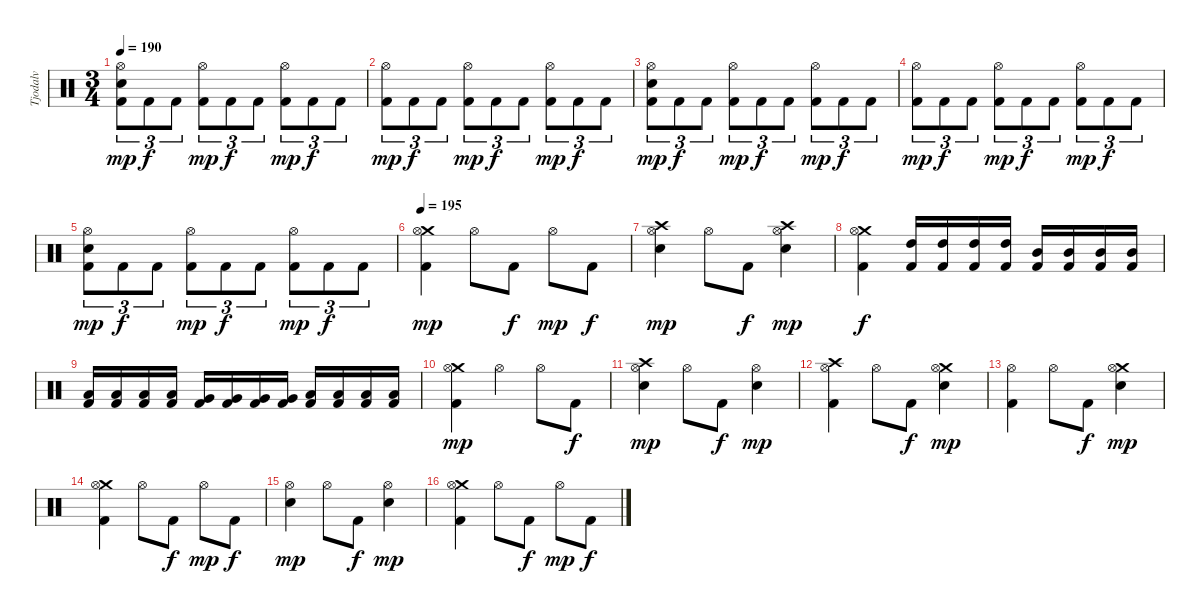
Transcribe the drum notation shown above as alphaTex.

\track ("Tjodalv" "Tjodalv") {instrument percussion}
\staff {score}
\articulation defaults
\ts (3 4)
\tempo 190
\clef neutral
\ks c
("Hi-Hat (open)" "Electric Snare (hit)" "Kick (hit) 2").8{tu (3 2) dy mp} "Kick (hit) 2".8{tu (3 2) dy f} "Kick (hit) 2".8{tu (3 2)} ("Hi-Hat (open)" "Kick (hit) 2").8{tu (3 2) dy mp} "Kick (hit) 2".8{tu (3 2) dy f} "Kick (hit) 2".8{tu (3 2)} ("Hi-Hat (open)" "Kick (hit) 2").8{tu (3 2) dy mp} "Kick (hit) 2".8{tu (3 2) dy f} "Kick (hit) 2".8{tu (3 2)} |
("Hi-Hat (open)" "Kick (hit) 2").8{tu (3 2) dy mp} "Kick (hit) 2".8{tu (3 2) dy f} "Kick (hit) 2".8{tu (3 2)} ("Hi-Hat (open)" "Kick (hit) 2").8{tu (3 2) dy mp} "Kick (hit) 2".8{tu (3 2) dy f} "Kick (hit) 2".8{tu (3 2)} ("Hi-Hat (open)" "Kick (hit) 2").8{tu (3 2) dy mp} "Kick (hit) 2".8{tu (3 2) dy f} "Kick (hit) 2".8{tu (3 2)} |
("Hi-Hat (open)" "Electric Snare (hit)" "Kick (hit) 2").8{tu (3 2) dy mp} "Kick (hit) 2".8{tu (3 2) dy f} "Kick (hit) 2".8{tu (3 2)} ("Hi-Hat (open)" "Kick (hit) 2").8{tu (3 2) dy mp} "Kick (hit) 2".8{tu (3 2) dy f} "Kick (hit) 2".8{tu (3 2)} ("Hi-Hat (open)" "Kick (hit) 2").8{tu (3 2) dy mp} "Kick (hit) 2".8{tu (3 2) dy f} "Kick (hit) 2".8{tu (3 2)} |
("Hi-Hat (open)" "Kick (hit) 2").8{tu (3 2) dy mp} "Kick (hit) 2".8{tu (3 2) dy f} "Kick (hit) 2".8{tu (3 2)} ("Hi-Hat (open)" "Kick (hit) 2").8{tu (3 2) dy mp} "Kick (hit) 2".8{tu (3 2) dy f} "Kick (hit) 2".8{tu (3 2)} ("Hi-Hat (open)" "Kick (hit) 2").8{tu (3 2) dy mp} "Kick (hit) 2".8{tu (3 2) dy f} "Kick (hit) 2".8{tu (3 2)} |
("Hi-Hat (open)" "Electric Snare (hit)" "Kick (hit) 2").8{tu (3 2) dy mp} "Kick (hit) 2".8{tu (3 2) dy f} "Kick (hit) 2".8{tu (3 2)} ("Hi-Hat (open)" "Kick (hit) 2").8{tu (3 2) dy mp} "Kick (hit) 2".8{tu (3 2) dy f} "Kick (hit) 2".8{tu (3 2)} ("Hi-Hat (open)" "Kick (hit) 2").8{tu (3 2) dy mp} "Kick (hit) 2".8{tu (3 2) dy f} "Kick (hit) 2".8{tu (3 2)} |
\tempo 195
("Crash medium (hit)" "Hi-Hat (open)" "Kick (hit) 2").4{dy mp} "Hi-Hat (open)".8 "Kick (hit) 2".8{dy f} "Hi-Hat (open)".8{dy mp} "Kick (hit) 2".8{dy f} |
("Crash high (hit)" "Hi-Hat (open)" "Electric Snare (hit)").4{dy mp} "Hi-Hat (open)".8 "Kick (hit) 2".8{dy f} ("Crash high (hit)" "Hi-Hat (open)" "Electric Snare (hit)").4{dy mp} |
("Crash medium (hit)" "Hi-Hat (open)" "Kick (hit) 2").4{dy f} ("High Tom (hit)" "Kick (hit) 2").16 ("High Tom (hit)" "Kick (hit) 2").16 ("High Tom (hit)" "Kick (hit) 2").16 ("High Tom (hit)" "Kick (hit) 2").16 ("Mid Tom (hit)" "Kick (hit) 2").16 ("Mid Tom (hit)" "Kick (hit) 2").16 ("Mid Tom (hit)" "Kick (hit) 2").16 ("Mid Tom (hit)" "Kick (hit) 2").16 |
("Low Tom (hit)" "Kick (hit) 2").16 ("Low Tom (hit)" "Kick (hit) 2").16 ("Low Tom (hit)" "Kick (hit) 2").16 ("Low Tom (hit)" "Kick (hit) 2").16 ("Very Low Tom (hit)" "Kick (hit) 2").16 ("Very Low Tom (hit)" "Kick (hit) 2").16 ("Very Low Tom (hit)" "Kick (hit) 2").16 ("Very Low Tom (hit)" "Kick (hit) 2").16 ("Low Floor Tom (hit)" "Kick (hit) 2").16 ("Low Floor Tom (hit)" "Kick (hit) 2").16 ("Low Floor Tom (hit)" "Kick (hit) 2").16 ("Low Floor Tom (hit)" "Kick (hit) 2").16 |
("Crash medium (hit)" "Hi-Hat (open)" "Kick (hit) 2").4{dy mp} "Hi-Hat (open)".4 "Hi-Hat (open)".8 "Kick (hit) 2".8{dy f} |
("Crash high (hit)" "Hi-Hat (open)" "Electric Snare (hit)").4{dy mp} "Hi-Hat (open)".8 "Kick (hit) 2".8{dy f} ("Hi-Hat (open)" "Electric Snare (hit)").4{dy mp} |
("Crash high (hit)" "Hi-Hat (open)" "Kick (hit) 2").4 "Hi-Hat (open)".8 "Kick (hit) 2".8{dy f} ("Crash medium (hit)" "Hi-Hat (open)" "Electric Snare (hit)").4{dy mp} |
("Hi-Hat (open)" "Kick (hit) 2").4 "Hi-Hat (open)".8 "Kick (hit) 2".8{dy f} ("Crash medium (hit)" "Hi-Hat (open)" "Electric Snare (hit)").4{dy mp} |
("Crash medium (hit)" "Hi-Hat (open)" "Kick (hit) 2").4 "Hi-Hat (open)".8 "Kick (hit) 2".8{dy f} "Hi-Hat (open)".8{dy mp} "Kick (hit) 2".8{dy f} |
("Hi-Hat (open)" "Electric Snare (hit)").4{dy mp} "Hi-Hat (open)".8 "Kick (hit) 2".8{dy f} ("Hi-Hat (open)" "Electric Snare (hit)").4{dy mp} |
("Crash medium (hit)" "Hi-Hat (open)" "Kick (hit) 2").4 "Hi-Hat (open)".8 "Kick (hit) 2".8{dy f} "Hi-Hat (open)".8{dy mp} "Kick (hit) 2".8{dy f}
